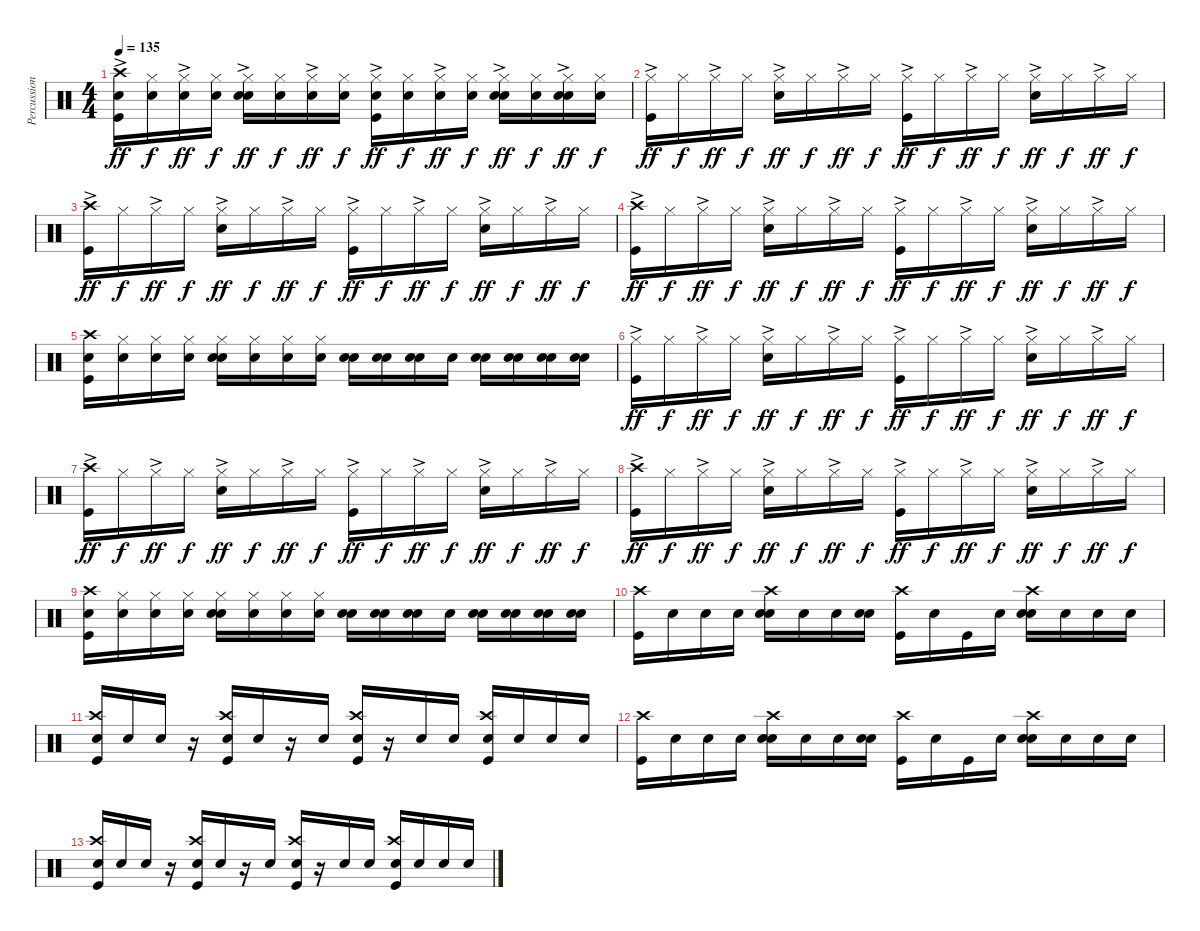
\track ("Percussion" "Percussion") {instrument percussion}
\staff {score}
\articulation defaults
\ts (4 4)
\tempo 135
\clef neutral
\ks c
("Snare (hit)" "Kick (hit)" "Crash high (hit)"{ac}).16{dy ff} ("Snare (hit)" "Hi-Hat (closed)").16{dy f} ("Snare (hit)" "Hi-Hat (closed)"{ac}).16{dy ff} ("Snare (hit)" "Hi-Hat (closed)").16{dy f} ("Snare (hit)" "Electric Snare (hit)" "Hi-Hat (closed)"{ac}).16{dy ff} ("Snare (hit)" "Hi-Hat (closed)").16{dy f} ("Snare (hit)" "Hi-Hat (closed)"{ac}).16{dy ff} ("Snare (hit)" "Hi-Hat (closed)").16{dy f} ("Snare (hit)" "Kick (hit)" "Hi-Hat (closed)"{ac}).16{dy ff} ("Snare (hit)" "Hi-Hat (closed)").16{dy f} ("Snare (hit)" "Hi-Hat (closed)"{ac}).16{dy ff} ("Snare (hit)" "Hi-Hat (closed)").16{dy f} ("Snare (hit)" "Electric Snare (hit)" "Hi-Hat (closed)"{ac}).16{dy ff} ("Snare (hit)" "Hi-Hat (closed)").16{dy f} ("Snare (hit)" "Electric Snare (hit)" "Hi-Hat (closed)"{ac}).16{dy ff} ("Snare (hit)" "Hi-Hat (closed)").16{dy f} |
("Kick (hit)" "Hi-Hat (closed)"{ac}).16{dy ff} "Hi-Hat (closed)".16{dy f} "Hi-Hat (closed)"{ac}.16{dy ff} "Hi-Hat (closed)".16{dy f} ("Electric Snare (hit)" "Hi-Hat (closed)"{ac}).16{dy ff} "Hi-Hat (closed)".16{dy f} "Hi-Hat (closed)"{ac}.16{dy ff} "Hi-Hat (closed)".16{dy f} ("Kick (hit)" "Hi-Hat (closed)"{ac}).16{dy ff} "Hi-Hat (closed)".16{dy f} "Hi-Hat (closed)"{ac}.16{dy ff} "Hi-Hat (closed)".16{dy f} ("Electric Snare (hit)" "Hi-Hat (closed)"{ac}).16{dy ff} "Hi-Hat (closed)".16{dy f} "Hi-Hat (closed)"{ac}.16{dy ff} "Hi-Hat (closed)".16{dy f} |
("Kick (hit)" "Crash high (hit)"{ac}).16{dy ff} "Hi-Hat (closed)".16{dy f} "Hi-Hat (closed)"{ac}.16{dy ff} "Hi-Hat (closed)".16{dy f} ("Electric Snare (hit)" "Hi-Hat (closed)"{ac}).16{dy ff} "Hi-Hat (closed)".16{dy f} "Hi-Hat (closed)"{ac}.16{dy ff} "Hi-Hat (closed)".16{dy f} ("Kick (hit)" "Hi-Hat (closed)"{ac}).16{dy ff} "Hi-Hat (closed)".16{dy f} "Hi-Hat (closed)"{ac}.16{dy ff} "Hi-Hat (closed)".16{dy f} ("Electric Snare (hit)" "Hi-Hat (closed)"{ac}).16{dy ff} "Hi-Hat (closed)".16{dy f} "Hi-Hat (closed)"{ac}.16{dy ff} "Hi-Hat (closed)".16{dy f} |
("Kick (hit)" "Crash high (hit)"{ac}).16{dy ff} "Hi-Hat (closed)".16{dy f} "Hi-Hat (closed)"{ac}.16{dy ff} "Hi-Hat (closed)".16{dy f} ("Electric Snare (hit)" "Hi-Hat (closed)"{ac}).16{dy ff} "Hi-Hat (closed)".16{dy f} "Hi-Hat (closed)"{ac}.16{dy ff} "Hi-Hat (closed)".16{dy f} ("Kick (hit)" "Hi-Hat (closed)"{ac}).16{dy ff} "Hi-Hat (closed)".16{dy f} "Hi-Hat (closed)"{ac}.16{dy ff} "Hi-Hat (closed)".16{dy f} ("Electric Snare (hit)" "Hi-Hat (closed)"{ac}).16{dy ff} "Hi-Hat (closed)".16{dy f} "Hi-Hat (closed)"{ac}.16{dy ff} "Hi-Hat (closed)".16{dy f} |
("Snare (hit)" "Kick (hit)" "Crash high (hit)").16 ("Snare (hit)" "Hi-Hat (closed)").16 ("Snare (hit)" "Hi-Hat (closed)").16 ("Snare (hit)" "Hi-Hat (closed)").16 ("Snare (hit)" "Electric Snare (hit)" "Hi-Hat (closed)").16 ("Snare (hit)" "Hi-Hat (closed)").16 ("Snare (hit)" "Hi-Hat (closed)").16 ("Snare (hit)" "Hi-Hat (closed)").16 ("Snare (hit)" "Electric Snare (hit)").16 ("Snare (hit)" "Electric Snare (hit)").16 ("Snare (hit)" "Electric Snare (hit)").16 "Snare (hit)".16 ("Snare (hit)" "Electric Snare (hit)").16 ("Snare (hit)" "Electric Snare (hit)").16 ("Snare (hit)" "Electric Snare (hit)").16 ("Snare (hit)" "Electric Snare (hit)").16 |
("Kick (hit)" "Hi-Hat (closed)"{ac}).16{dy ff} "Hi-Hat (closed)".16{dy f} "Hi-Hat (closed)"{ac}.16{dy ff} "Hi-Hat (closed)".16{dy f} ("Electric Snare (hit)" "Hi-Hat (closed)"{ac}).16{dy ff} "Hi-Hat (closed)".16{dy f} "Hi-Hat (closed)"{ac}.16{dy ff} "Hi-Hat (closed)".16{dy f} ("Kick (hit)" "Hi-Hat (closed)"{ac}).16{dy ff} "Hi-Hat (closed)".16{dy f} "Hi-Hat (closed)"{ac}.16{dy ff} "Hi-Hat (closed)".16{dy f} ("Electric Snare (hit)" "Hi-Hat (closed)"{ac}).16{dy ff} "Hi-Hat (closed)".16{dy f} "Hi-Hat (closed)"{ac}.16{dy ff} "Hi-Hat (closed)".16{dy f} |
("Kick (hit)" "Crash high (hit)"{ac}).16{dy ff} "Hi-Hat (closed)".16{dy f} "Hi-Hat (closed)"{ac}.16{dy ff} "Hi-Hat (closed)".16{dy f} ("Electric Snare (hit)" "Hi-Hat (closed)"{ac}).16{dy ff} "Hi-Hat (closed)".16{dy f} "Hi-Hat (closed)"{ac}.16{dy ff} "Hi-Hat (closed)".16{dy f} ("Kick (hit)" "Hi-Hat (closed)"{ac}).16{dy ff} "Hi-Hat (closed)".16{dy f} "Hi-Hat (closed)"{ac}.16{dy ff} "Hi-Hat (closed)".16{dy f} ("Electric Snare (hit)" "Hi-Hat (closed)"{ac}).16{dy ff} "Hi-Hat (closed)".16{dy f} "Hi-Hat (closed)"{ac}.16{dy ff} "Hi-Hat (closed)".16{dy f} |
("Kick (hit)" "Crash high (hit)"{ac}).16{dy ff} "Hi-Hat (closed)".16{dy f} "Hi-Hat (closed)"{ac}.16{dy ff} "Hi-Hat (closed)".16{dy f} ("Electric Snare (hit)" "Hi-Hat (closed)"{ac}).16{dy ff} "Hi-Hat (closed)".16{dy f} "Hi-Hat (closed)"{ac}.16{dy ff} "Hi-Hat (closed)".16{dy f} ("Kick (hit)" "Hi-Hat (closed)"{ac}).16{dy ff} "Hi-Hat (closed)".16{dy f} "Hi-Hat (closed)"{ac}.16{dy ff} "Hi-Hat (closed)".16{dy f} ("Electric Snare (hit)" "Hi-Hat (closed)"{ac}).16{dy ff} "Hi-Hat (closed)".16{dy f} "Hi-Hat (closed)"{ac}.16{dy ff} "Hi-Hat (closed)".16{dy f} |
("Snare (hit)" "Kick (hit)" "Crash high (hit)").16 ("Snare (hit)" "Hi-Hat (closed)").16 ("Snare (hit)" "Hi-Hat (closed)").16 ("Snare (hit)" "Hi-Hat (closed)").16 ("Snare (hit)" "Electric Snare (hit)" "Hi-Hat (closed)").16 ("Snare (hit)" "Hi-Hat (closed)").16 ("Snare (hit)" "Hi-Hat (closed)").16 ("Snare (hit)" "Hi-Hat (closed)").16 ("Snare (hit)" "Electric Snare (hit)").16 ("Snare (hit)" "Electric Snare (hit)").16 ("Snare (hit)" "Electric Snare (hit)").16 "Snare (hit)".16 ("Snare (hit)" "Electric Snare (hit)").16 ("Snare (hit)" "Electric Snare (hit)").16 ("Snare (hit)" "Electric Snare (hit)").16 ("Snare (hit)" "Electric Snare (hit)").16 |
("Kick (hit)" "Crash high (hit)").16 "Snare (hit)".16 "Snare (hit)".16 "Snare (hit)".16 ("Snare (hit)" "Electric Snare (hit)" "Crash high (hit)").16 "Snare (hit)".16 "Snare (hit)".16 ("Snare (hit)" "Electric Snare (hit)").16 ("Kick (hit)" "Crash high (hit)").16 "Snare (hit)".16 "Kick (hit)".16 "Snare (hit)".16 ("Snare (hit)" "Electric Snare (hit)" "Crash high (hit)").16 "Snare (hit)".16 "Snare (hit)".16 "Snare (hit)".16 |
("Kick (hit)" "Electric Snare (hit)" "Crash high (hit)").16 "Snare (hit)".16 "Snare (hit)".16 r.16 ("Kick (hit)" "Electric Snare (hit)" "Crash high (hit)").16 "Snare (hit)".16 r.16 "Snare (hit)".16 ("Kick (hit)" "Electric Snare (hit)" "Crash high (hit)").16 r.16 "Snare (hit)".16 "Snare (hit)".16 ("Kick (hit)" "Electric Snare (hit)" "Crash high (hit)").16 "Snare (hit)".16 "Snare (hit)".16 "Snare (hit)".16 |
("Kick (hit)" "Crash high (hit)").16 "Snare (hit)".16 "Snare (hit)".16 "Snare (hit)".16 ("Snare (hit)" "Electric Snare (hit)" "Crash high (hit)").16 "Snare (hit)".16 "Snare (hit)".16 ("Snare (hit)" "Electric Snare (hit)").16 ("Kick (hit)" "Crash high (hit)").16 "Snare (hit)".16 "Kick (hit)".16 "Snare (hit)".16 ("Snare (hit)" "Electric Snare (hit)" "Crash high (hit)").16 "Snare (hit)".16 "Snare (hit)".16 "Snare (hit)".16 |
("Kick (hit)" "Electric Snare (hit)" "Crash high (hit)").16 "Snare (hit)".16 "Snare (hit)".16 r.16 ("Kick (hit)" "Electric Snare (hit)" "Crash high (hit)").16 "Snare (hit)".16 r.16 "Snare (hit)".16 ("Kick (hit)" "Electric Snare (hit)" "Crash high (hit)").16 r.16 "Snare (hit)".16 "Snare (hit)".16 ("Kick (hit)" "Electric Snare (hit)" "Crash high (hit)").16 "Snare (hit)".16 "Snare (hit)".16 "Snare (hit)".16
